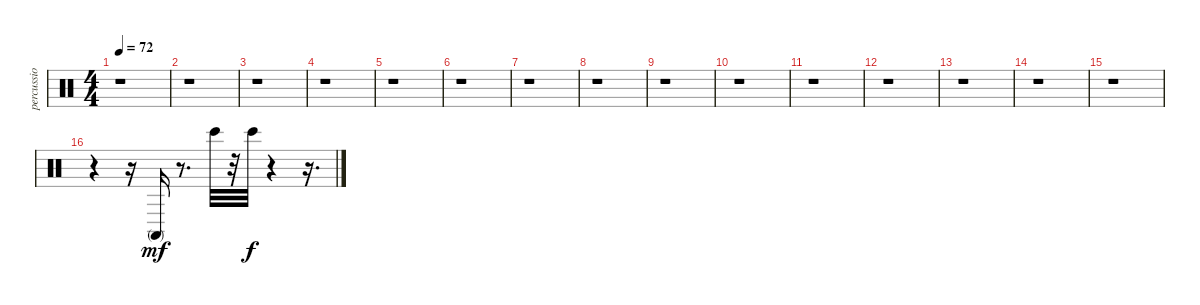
\track ("percussio" "percussio") {instrument percussion}
\staff {score}
\articulation defaults
\ts (4 4)
\tempo 72
\clef neutral
\ks c
r.1{dy mf} |
r.1 |
r.1 |
r.1 |
r.1 |
r.1 |
r.1 |
r.1 |
r.1 |
r.1 |
r.1 |
r.1 |
r.1 |
r.1 |
r.1 |
r.4 r.16 "Conga high (mute)".16 r.8{d} "Bongo High (hit)".32 r.32 "Bongo High (hit)".32{dy f} r.4 r.16{d}
